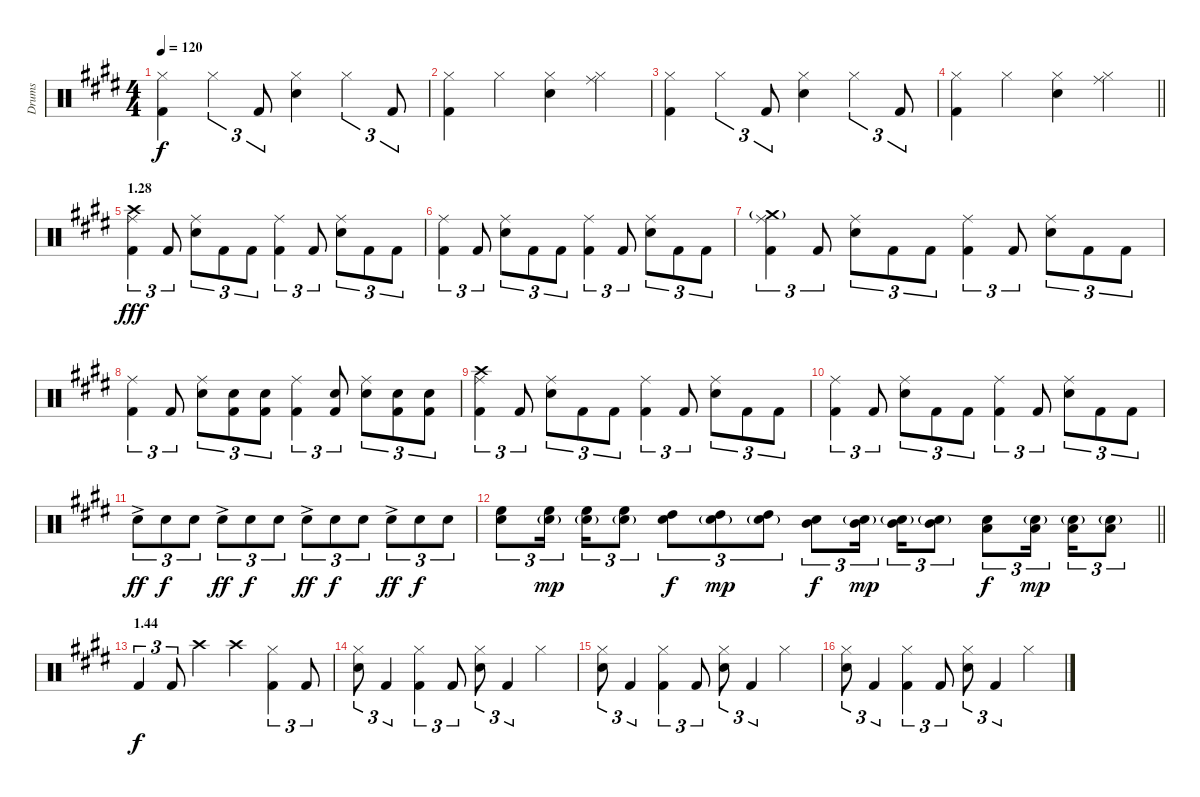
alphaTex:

\track ("Drums" "Drums") {instrument percussion}
\staff {score}
\articulation defaults
\ts (4 4)
\tempo 120
\clef neutral
\ks c#minor
("Hi-Hat (closed)" "Kick (hit) 2").4{dy f} "Hi-Hat (closed)".4{tu (3 2)} "Kick (hit) 2".8{tu (3 2)} ("Hi-Hat (closed)" "Electric Snare (hit)").4 "Hi-Hat (closed)".4{tu (3 2)} "Kick (hit) 2".8{tu (3 2)} |
("Hi-Hat (closed)" "Kick (hit) 2").4 "Hi-Hat (closed)".4 ("Hi-Hat (closed)" "Electric Snare (hit)").4 ("Ride (middle)" "Hi-Hat (closed)").4 |
("Hi-Hat (closed)" "Kick (hit) 2").4 "Hi-Hat (closed)".4{tu (3 2)} "Kick (hit) 2".8{tu (3 2)} ("Hi-Hat (closed)" "Electric Snare (hit)").4 "Hi-Hat (closed)".4{tu (3 2)} "Kick (hit) 2".8{tu (3 2)} |
\barLineRight lightlight
("Hi-Hat (closed)" "Kick (hit) 2").4 "Hi-Hat (closed)".4 ("Hi-Hat (closed)" "Electric Snare (hit)").4 ("Ride (middle)" "Hi-Hat (closed)").4 |
\section ("" "1.28")
("Crash high (hit)" "Ride (middle)" "Kick (hit) 2").4{tu (3 2) dy fff} "Kick (hit) 2".8{tu (3 2)} ("Ride (middle)" "Electric Snare (hit)").8{tu (3 2)} "Kick (hit) 2".8{tu (3 2)} "Kick (hit) 2".8{tu (3 2)} ("Ride (middle)" "Kick (hit) 2").4{tu (3 2)} "Kick (hit) 2".8{tu (3 2)} ("Ride (middle)" "Electric Snare (hit)").8{tu (3 2)} "Kick (hit) 2".8{tu (3 2)} "Kick (hit) 2".8{tu (3 2)} |
("Ride (middle)" "Kick (hit) 2").4{tu (3 2)} "Kick (hit) 2".8{tu (3 2)} ("Ride (middle)" "Electric Snare (hit)").8{tu (3 2)} "Kick (hit) 2".8{tu (3 2)} "Kick (hit) 2".8{tu (3 2)} ("Ride (middle)" "Kick (hit) 2").4{tu (3 2)} "Kick (hit) 2".8{tu (3 2)} ("Ride (middle)" "Electric Snare (hit)").8{tu (3 2)} "Kick (hit) 2".8{tu (3 2)} "Kick (hit) 2".8{tu (3 2)} |
("Crash medium (hit)"{g} "Ride (middle)" "Kick (hit) 2").4{tu (3 2)} "Kick (hit) 2".8{tu (3 2)} ("Ride (middle)" "Electric Snare (hit)").8{tu (3 2)} "Kick (hit) 2".8{tu (3 2)} "Kick (hit) 2".8{tu (3 2)} ("Ride (middle)" "Kick (hit) 2").4{tu (3 2)} "Kick (hit) 2".8{tu (3 2)} ("Ride (middle)" "Electric Snare (hit)").8{tu (3 2)} "Kick (hit) 2".8{tu (3 2)} "Kick (hit) 2".8{tu (3 2)} |
("Ride (middle)" "Kick (hit) 2").4{tu (3 2)} "Kick (hit) 2".8{tu (3 2)} ("Ride (middle)" "Electric Snare (hit)").8{tu (3 2)} ("Electric Snare (hit)" "Kick (hit) 2").8{tu (3 2)} ("Electric Snare (hit)" "Kick (hit) 2").8{tu (3 2)} ("Ride (middle)" "Kick (hit) 2").4{tu (3 2)} ("Electric Snare (hit)" "Kick (hit) 2").8{tu (3 2)} ("Ride (middle)" "Electric Snare (hit)").8{tu (3 2)} ("Electric Snare (hit)" "Kick (hit) 2").8{tu (3 2)} ("Electric Snare (hit)" "Kick (hit) 2").8{tu (3 2)} |
("Crash high (hit)" "Ride (middle)" "Kick (hit) 2").4{tu (3 2)} "Kick (hit) 2".8{tu (3 2)} ("Ride (middle)" "Electric Snare (hit)").8{tu (3 2)} "Kick (hit) 2".8{tu (3 2)} "Kick (hit) 2".8{tu (3 2)} ("Ride (middle)" "Kick (hit) 2").4{tu (3 2)} "Kick (hit) 2".8{tu (3 2)} ("Ride (middle)" "Electric Snare (hit)").8{tu (3 2)} "Kick (hit) 2".8{tu (3 2)} "Kick (hit) 2".8{tu (3 2)} |
("Ride (middle)" "Kick (hit) 2").4{tu (3 2)} "Kick (hit) 2".8{tu (3 2)} ("Ride (middle)" "Electric Snare (hit)").8{tu (3 2)} "Kick (hit) 2".8{tu (3 2)} "Kick (hit) 2".8{tu (3 2)} ("Ride (middle)" "Kick (hit) 2").4{tu (3 2)} "Kick (hit) 2".8{tu (3 2)} ("Ride (middle)" "Electric Snare (hit)").8{tu (3 2)} "Kick (hit) 2".8{tu (3 2)} "Kick (hit) 2".8{tu (3 2)} |
"Electric Snare (hit)"{ac}.8{tu (3 2) dy ff} "Electric Snare (hit)".8{tu (3 2) dy f} "Electric Snare (hit)".8{tu (3 2)} "Electric Snare (hit)"{ac}.8{tu (3 2) dy ff} "Electric Snare (hit)".8{tu (3 2) dy f} "Electric Snare (hit)".8{tu (3 2)} "Electric Snare (hit)"{ac}.8{tu (3 2) dy ff} "Electric Snare (hit)".8{tu (3 2) dy f} "Electric Snare (hit)".8{tu (3 2)} "Electric Snare (hit)"{ac}.8{tu (3 2) dy ff} "Electric Snare (hit)".8{tu (3 2) dy f} "Electric Snare (hit)".8{tu (3 2)} |
\barLineRight lightlight
("High Floor Tom (hit)" "Electric Snare (hit)").8{tu (3 2)} ("High Floor Tom (hit)" "Electric Snare (hit)"{g}).16{tu (3 2) dy mp beam splitsecondary} ("High Floor Tom (hit)" "Electric Snare (hit)"{g}).16{tu (3 2)} ("High Floor Tom (hit)" "Electric Snare (hit)"{g}).8{tu (3 2)} ("High Tom (hit)" "Electric Snare (hit)").8{tu (3 2) dy f} ("High Tom (hit)" "Electric Snare (hit)"{g}).8{tu (3 2) dy mp} ("High Tom (hit)" "Electric Snare (hit)"{g}).8{tu (3 2)} ("Mid Tom (hit)" "Electric Snare (hit)").8{tu (3 2) dy f} ("Mid Tom (hit)" "Electric Snare (hit)"{g}).16{tu (3 2) dy mp beam splitsecondary} ("Mid Tom (hit)" "Electric Snare (hit)"{g}).16{tu (3 2)} ("Mid Tom (hit)" "Electric Snare (hit)"{g}).8{tu (3 2)} ("Low Tom (hit)" "Electric Snare (hit)").8{tu (3 2) dy f} ("Low Tom (hit)" "Electric Snare (hit)"{g}).16{tu (3 2) dy mp beam splitsecondary} ("Low Tom (hit)" "Electric Snare (hit)"{g}).16{tu (3 2)} ("Low Tom (hit)" "Electric Snare (hit)"{g}).8{tu (3 2)} |
\section ("" "1.44")
"Kick (hit) 2".4{tu (3 2) dy f} "Kick (hit) 2".8{tu (3 2)} "Crash high (hit)".4 "Crash high (hit)".4 ("Hi-Hat (closed)" "Kick (hit) 2").4{tu (3 2)} "Kick (hit) 2".8{tu (3 2)} |
("Hi-Hat (closed)" "Electric Snare (hit)").8{tu (3 2)} "Kick (hit) 2".4{tu (3 2)} ("Hi-Hat (closed)" "Kick (hit) 2").4{tu (3 2)} "Kick (hit) 2".8{tu (3 2)} ("Hi-Hat (closed)" "Electric Snare (hit)").8{tu (3 2)} "Kick (hit) 2".4{tu (3 2)} "Hi-Hat (closed)".4 |
("Hi-Hat (closed)" "Electric Snare (hit)").8{tu (3 2)} "Kick (hit) 2".4{tu (3 2)} ("Hi-Hat (closed)" "Kick (hit) 2").4{tu (3 2)} "Kick (hit) 2".8{tu (3 2)} ("Hi-Hat (closed)" "Electric Snare (hit)").8{tu (3 2)} "Kick (hit) 2".4{tu (3 2)} "Hi-Hat (closed)".4 |
("Hi-Hat (closed)" "Electric Snare (hit)").8{tu (3 2)} "Kick (hit) 2".4{tu (3 2)} ("Hi-Hat (closed)" "Kick (hit) 2").4{tu (3 2)} "Kick (hit) 2".8{tu (3 2)} ("Hi-Hat (closed)" "Electric Snare (hit)").8{tu (3 2)} "Kick (hit) 2".4{tu (3 2)} "Hi-Hat (closed)".4
